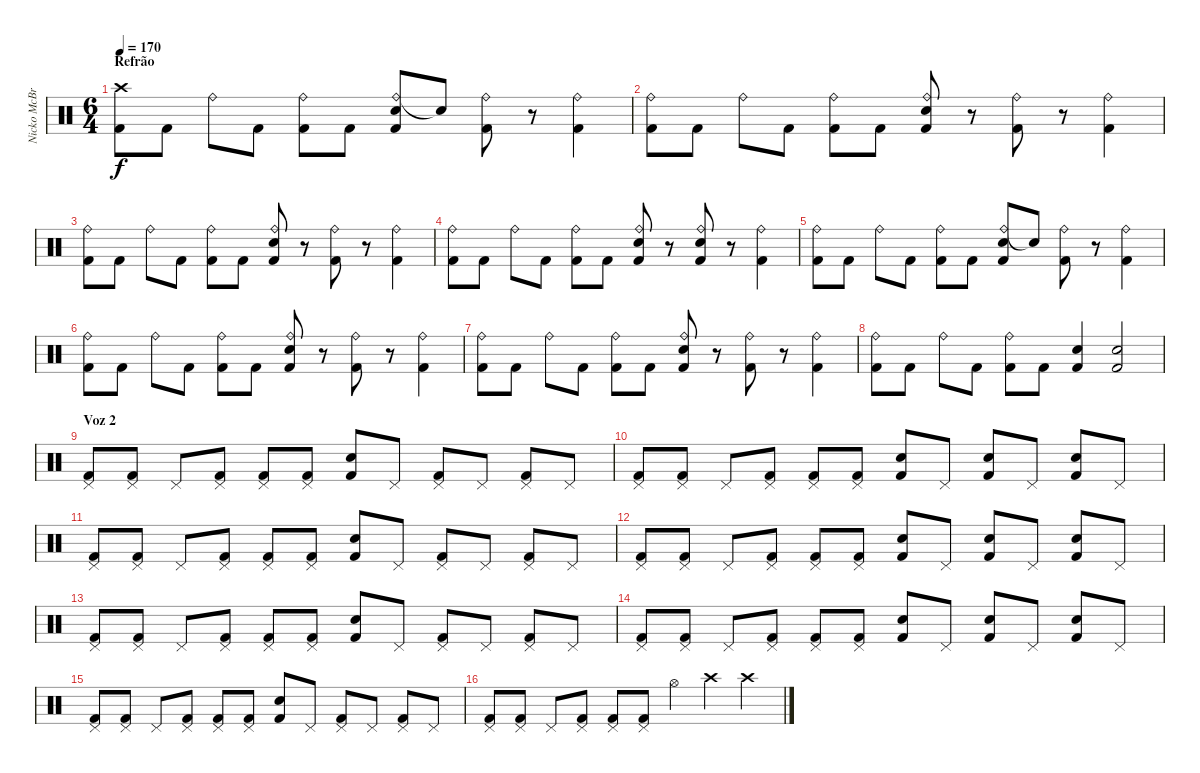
\track ("Nicko McBrain" "Nicko McBr") {instrument percussion}
\staff {score}
\articulation defaults
\ts (6 4)
\section ("" "Refrão")
\tempo 170
\clef neutral
\ks c
("Crash high (hit)" "Kick (hit) 2").8{dy f balance 0} "Kick (hit) 2".8 "Ride (bell)".8 "Kick (hit) 2".8 ("Ride (bell)" "Kick (hit) 2").8 "Kick (hit) 2".8 ("Ride (bell)" "Snare (hit) 2" "Kick (hit) 2").8 "Snare (hit) 2"{t}.8 ("Ride (bell)" "Kick (hit) 2").8 r.8 ("Ride (bell)" "Kick (hit) 2").4 |
("Ride (bell)" "Kick (hit) 2").8 "Kick (hit) 2".8 "Ride (bell)".8 "Kick (hit) 2".8 ("Ride (bell)" "Kick (hit) 2").8 "Kick (hit) 2".8 ("Ride (bell)" "Snare (hit) 2" "Kick (hit) 2").8 r.8 ("Ride (bell)" "Kick (hit) 2").8 r.8 ("Ride (bell)" "Kick (hit) 2").4 |
("Ride (bell)" "Kick (hit) 2").8 "Kick (hit) 2".8 "Ride (bell)".8 "Kick (hit) 2".8 ("Ride (bell)" "Kick (hit) 2").8 "Kick (hit) 2".8 ("Snare (hit) 2" "Ride (bell)" "Kick (hit) 2").8 r.8 ("Ride (bell)" "Kick (hit) 2").8 r.8 ("Ride (bell)" "Kick (hit) 2").4 |
("Ride (bell)" "Kick (hit) 2").8 "Kick (hit) 2".8 "Ride (bell)".8 "Kick (hit) 2".8 ("Ride (bell)" "Kick (hit) 2").8 "Kick (hit) 2".8 ("Ride (bell)" "Snare (hit) 2" "Kick (hit) 2").8 r.8 ("Snare (hit) 2" "Ride (bell)" "Kick (hit) 2").8 r.8 ("Ride (bell)" "Kick (hit) 2").4 |
("Ride (bell)" "Kick (hit) 2").8 "Kick (hit) 2".8 "Ride (bell)".8 "Kick (hit) 2".8 ("Ride (bell)" "Kick (hit) 2").8 "Kick (hit) 2".8 ("Ride (bell)" "Snare (hit) 2" "Kick (hit) 2").8 "Snare (hit) 2"{t}.8 ("Ride (bell)" "Kick (hit) 2").8 r.8 ("Ride (bell)" "Kick (hit) 2").4 |
("Ride (bell)" "Kick (hit) 2").8 "Kick (hit) 2".8 "Ride (bell)".8 "Kick (hit) 2".8 ("Ride (bell)" "Kick (hit) 2").8 "Kick (hit) 2".8 ("Ride (bell)" "Snare (hit) 2" "Kick (hit) 2").8 r.8 ("Ride (bell)" "Kick (hit) 2").8 r.8 ("Ride (bell)" "Kick (hit) 2").4 |
("Ride (bell)" "Kick (hit) 2").8 "Kick (hit) 2".8 "Ride (bell)".8 "Kick (hit) 2".8 ("Ride (bell)" "Kick (hit) 2").8 "Kick (hit) 2".8 ("Snare (hit) 2" "Ride (bell)" "Kick (hit) 2").8 r.8 ("Ride (bell)" "Kick (hit) 2").8 r.8 ("Ride (bell)" "Kick (hit) 2").4 |
("Ride (bell)" "Kick (hit) 2").8 "Kick (hit) 2".8 "Ride (bell)".8 "Kick (hit) 2".8 ("Ride (bell)" "Kick (hit) 2").8 "Kick (hit) 2".8 ("Snare (hit) 2" "Kick (hit) 2").4 ("Snare (hit) 2" "Kick (hit) 2").2 |
\section ("" "Voz 2")
("Pedal Hi-Hat (hit)" "Kick (hit) 2").8{balance 15} ("Pedal Hi-Hat (hit)" "Kick (hit) 2").8 "Pedal Hi-Hat (hit)".8 ("Pedal Hi-Hat (hit)" "Kick (hit) 2").8 ("Pedal Hi-Hat (hit)" "Kick (hit) 2").8 ("Pedal Hi-Hat (hit)" "Kick (hit) 2").8 ("Snare (hit) 2" "Kick (hit) 2").8 "Pedal Hi-Hat (hit)".8 ("Pedal Hi-Hat (hit)" "Kick (hit) 2").8 "Pedal Hi-Hat (hit)".8 ("Pedal Hi-Hat (hit)" "Kick (hit) 2").8 "Pedal Hi-Hat (hit)".8 |
("Pedal Hi-Hat (hit)" "Kick (hit) 2").8 ("Pedal Hi-Hat (hit)" "Kick (hit) 2").8 "Pedal Hi-Hat (hit)".8 ("Pedal Hi-Hat (hit)" "Kick (hit) 2").8 ("Pedal Hi-Hat (hit)" "Kick (hit) 2").8 ("Pedal Hi-Hat (hit)" "Kick (hit) 2").8 ("Snare (hit) 2" "Kick (hit) 2").8 "Pedal Hi-Hat (hit)".8 ("Snare (hit) 2" "Kick (hit) 2").8 "Pedal Hi-Hat (hit)".8 ("Snare (hit) 2" "Kick (hit) 2").8 "Pedal Hi-Hat (hit)".8 |
("Pedal Hi-Hat (hit)" "Kick (hit) 2").8 ("Pedal Hi-Hat (hit)" "Kick (hit) 2").8 "Pedal Hi-Hat (hit)".8 ("Pedal Hi-Hat (hit)" "Kick (hit) 2").8 ("Pedal Hi-Hat (hit)" "Kick (hit) 2").8 ("Pedal Hi-Hat (hit)" "Kick (hit) 2").8 ("Snare (hit) 2" "Kick (hit) 2").8 "Pedal Hi-Hat (hit)".8 ("Pedal Hi-Hat (hit)" "Kick (hit) 2").8 "Pedal Hi-Hat (hit)".8 ("Pedal Hi-Hat (hit)" "Kick (hit) 2").8 "Pedal Hi-Hat (hit)".8 |
("Pedal Hi-Hat (hit)" "Kick (hit) 2").8 ("Pedal Hi-Hat (hit)" "Kick (hit) 2").8 "Pedal Hi-Hat (hit)".8 ("Pedal Hi-Hat (hit)" "Kick (hit) 2").8 ("Pedal Hi-Hat (hit)" "Kick (hit) 2").8 ("Pedal Hi-Hat (hit)" "Kick (hit) 2").8 ("Snare (hit) 2" "Kick (hit) 2").8 "Pedal Hi-Hat (hit)".8 ("Snare (hit) 2" "Kick (hit) 2").8 "Pedal Hi-Hat (hit)".8 ("Snare (hit) 2" "Kick (hit) 2").8 "Pedal Hi-Hat (hit)".8 |
("Pedal Hi-Hat (hit)" "Kick (hit) 2").8 ("Pedal Hi-Hat (hit)" "Kick (hit) 2").8 "Pedal Hi-Hat (hit)".8 ("Pedal Hi-Hat (hit)" "Kick (hit) 2").8 ("Pedal Hi-Hat (hit)" "Kick (hit) 2").8 ("Pedal Hi-Hat (hit)" "Kick (hit) 2").8 ("Snare (hit) 2" "Kick (hit) 2").8 "Pedal Hi-Hat (hit)".8 ("Pedal Hi-Hat (hit)" "Kick (hit) 2").8 "Pedal Hi-Hat (hit)".8 ("Pedal Hi-Hat (hit)" "Kick (hit) 2").8 "Pedal Hi-Hat (hit)".8 |
("Pedal Hi-Hat (hit)" "Kick (hit) 2").8 ("Pedal Hi-Hat (hit)" "Kick (hit) 2").8 "Pedal Hi-Hat (hit)".8 ("Pedal Hi-Hat (hit)" "Kick (hit) 2").8 ("Pedal Hi-Hat (hit)" "Kick (hit) 2").8 ("Pedal Hi-Hat (hit)" "Kick (hit) 2").8 ("Snare (hit) 2" "Kick (hit) 2").8 "Pedal Hi-Hat (hit)".8 ("Snare (hit) 2" "Kick (hit) 2").8 "Pedal Hi-Hat (hit)".8 ("Snare (hit) 2" "Kick (hit) 2").8 "Pedal Hi-Hat (hit)".8 |
("Pedal Hi-Hat (hit)" "Kick (hit) 2").8 ("Pedal Hi-Hat (hit)" "Kick (hit) 2").8 "Pedal Hi-Hat (hit)".8 ("Pedal Hi-Hat (hit)" "Kick (hit) 2").8 ("Pedal Hi-Hat (hit)" "Kick (hit) 2").8 ("Pedal Hi-Hat (hit)" "Kick (hit) 2").8 ("Snare (hit) 2" "Kick (hit) 2").8 "Pedal Hi-Hat (hit)".8 ("Pedal Hi-Hat (hit)" "Kick (hit) 2").8 "Pedal Hi-Hat (hit)".8 ("Pedal Hi-Hat (hit)" "Kick (hit) 2").8 "Pedal Hi-Hat (hit)".8 |
("Pedal Hi-Hat (hit)" "Kick (hit) 2").8 ("Pedal Hi-Hat (hit)" "Kick (hit) 2").8 "Pedal Hi-Hat (hit)".8 ("Pedal Hi-Hat (hit)" "Kick (hit) 2").8 ("Pedal Hi-Hat (hit)" "Kick (hit) 2").8 ("Pedal Hi-Hat (hit)" "Kick (hit) 2").8 "Hi-Hat (open)".4 "Crash high (hit)".4 "Crash high (hit)".4
